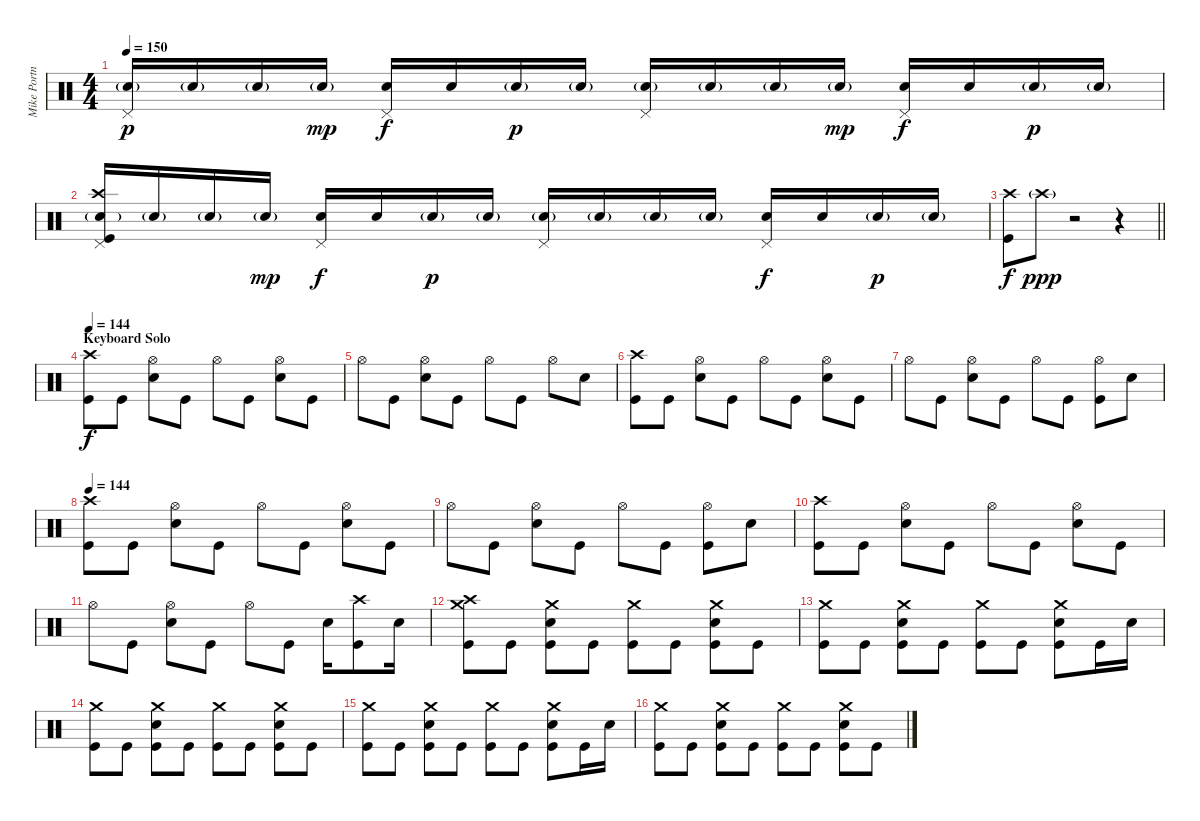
\track ("Mike Portnoy" "Mike Portn") {instrument percussion}
\staff {score}
\articulation defaults
\ts (4 4)
\tempo 150
\clef neutral
\ks c
("Electric Snare (hit)"{g} "Pedal Hi-Hat (hit)").16{dy p} "Electric Snare (hit)"{g}.16 "Electric Snare (hit)"{g}.16 "Electric Snare (hit)"{g}.16{dy mp} ("Electric Snare (hit)" "Pedal Hi-Hat (hit)").16{dy f} "Electric Snare (hit)".16 "Electric Snare (hit)"{g}.16{dy p} "Electric Snare (hit)"{g}.16 ("Electric Snare (hit)"{g} "Pedal Hi-Hat (hit)").16 "Electric Snare (hit)"{g}.16 "Electric Snare (hit)"{g}.16 "Electric Snare (hit)"{g}.16{dy mp} ("Electric Snare (hit)" "Pedal Hi-Hat (hit)").16{dy f} "Electric Snare (hit)".16 "Electric Snare (hit)"{g}.16{dy p} "Electric Snare (hit)"{g}.16 |
("Crash high (hit)" "Electric Snare (hit)"{g} "Kick (hit)" "Pedal Hi-Hat (hit)").16 "Electric Snare (hit)"{g}.16 "Electric Snare (hit)"{g}.16 "Electric Snare (hit)"{g}.16{dy mp} ("Electric Snare (hit)" "Pedal Hi-Hat (hit)").16{dy f} "Electric Snare (hit)".16 "Electric Snare (hit)"{g}.16{dy p} "Electric Snare (hit)"{g}.16 ("Electric Snare (hit)"{g} "Pedal Hi-Hat (hit)").16 "Electric Snare (hit)"{g}.16 "Electric Snare (hit)"{g}.16 "Electric Snare (hit)"{g}.16 ("Electric Snare (hit)" "Pedal Hi-Hat (hit)").16{dy f} "Electric Snare (hit)".16 "Electric Snare (hit)"{g}.16{dy p} "Electric Snare (hit)"{g}.16 |
\barLineRight lightlight
("Crash high (hit)" "Kick (hit)").8{dy f} "Crash high (hit)"{g}.8{dy ppp} r.2 r.4 |
\section ("" "Keyboard Solo ")
\tempo 144
("Crash high (hit)" "Kick (hit)").8{dy f} "Kick (hit)".8 ("Hi-Hat (open)" "Electric Snare (hit)").8 "Kick (hit)".8 "Hi-Hat (open)".8 "Kick (hit)".8 ("Hi-Hat (open)" "Electric Snare (hit)").8 "Kick (hit)".8 |
"Hi-Hat (open)".8 "Kick (hit)".8 ("Hi-Hat (open)" "Electric Snare (hit)").8 "Kick (hit)".8 "Hi-Hat (open)".8 "Kick (hit)".8 "Hi-Hat (open)".8 "Electric Snare (hit)".8 |
("Crash high (hit)" "Kick (hit)").8 "Kick (hit)".8 ("Hi-Hat (open)" "Electric Snare (hit)").8 "Kick (hit)".8 "Hi-Hat (open)".8 "Kick (hit)".8 ("Hi-Hat (open)" "Electric Snare (hit)").8 "Kick (hit)".8 |
"Hi-Hat (open)".8 "Kick (hit)".8 ("Hi-Hat (open)" "Electric Snare (hit)").8 "Kick (hit)".8 "Hi-Hat (open)".8 "Kick (hit)".8 ("Hi-Hat (open)" "Kick (hit)").8 "Electric Snare (hit)".8 |
\tempo 144
("Crash high (hit)" "Kick (hit)").8 "Kick (hit)".8 ("Hi-Hat (open)" "Electric Snare (hit)").8 "Kick (hit)".8 "Hi-Hat (open)".8 "Kick (hit)".8 ("Hi-Hat (open)" "Electric Snare (hit)").8 "Kick (hit)".8 |
"Hi-Hat (open)".8 "Kick (hit)".8 ("Hi-Hat (open)" "Electric Snare (hit)").8 "Kick (hit)".8 "Hi-Hat (open)".8 "Kick (hit)".8 ("Hi-Hat (open)" "Kick (hit)").8 "Electric Snare (hit)".8 |
("Crash high (hit)" "Kick (hit)").8 "Kick (hit)".8 ("Hi-Hat (open)" "Electric Snare (hit)").8 "Kick (hit)".8 "Hi-Hat (open)".8 "Kick (hit)".8 ("Hi-Hat (open)" "Electric Snare (hit)").8 "Kick (hit)".8 |
"Hi-Hat (open)".8 "Kick (hit)".8 ("Hi-Hat (open)" "Electric Snare (hit)").8 "Kick (hit)".8 "Hi-Hat (open)".8 "Kick (hit)".8 "Electric Snare (hit)".16 ("Crash high (hit)" "Kick (hit)").8 "Electric Snare (hit)".16 |
("Crash medium (hit)" "Crash high (hit)" "Kick (hit)").8 "Kick (hit)".8 ("Crash medium (hit)" "Electric Snare (hit)" "Kick (hit)").8 "Kick (hit)".8 ("Crash medium (hit)" "Kick (hit)").8 "Kick (hit)".8 ("Crash medium (hit)" "Electric Snare (hit)" "Kick (hit)").8 "Kick (hit)".8 |
("Crash medium (hit)" "Kick (hit)").8 "Kick (hit)".8 ("Crash medium (hit)" "Electric Snare (hit)" "Kick (hit)").8 "Kick (hit)".8 ("Crash medium (hit)" "Kick (hit)").8 "Kick (hit)".8 ("Crash medium (hit)" "Electric Snare (hit)" "Kick (hit)").8 "Kick (hit)".16 "Electric Snare (hit)".16 |
("Crash medium (hit)" "Kick (hit)").8 "Kick (hit)".8 ("Crash medium (hit)" "Electric Snare (hit)" "Kick (hit)").8 "Kick (hit)".8 ("Crash medium (hit)" "Kick (hit)").8 "Kick (hit)".8 ("Crash medium (hit)" "Electric Snare (hit)" "Kick (hit)").8 "Kick (hit)".8 |
("Crash medium (hit)" "Kick (hit)").8 "Kick (hit)".8 ("Crash medium (hit)" "Electric Snare (hit)" "Kick (hit)").8 "Kick (hit)".8 ("Crash medium (hit)" "Kick (hit)").8 "Kick (hit)".8 ("Crash medium (hit)" "Electric Snare (hit)" "Kick (hit)").8 "Kick (hit)".16 "Electric Snare (hit)".16 |
("Crash medium (hit)" "Kick (hit)").8 "Kick (hit)".8 ("Crash medium (hit)" "Electric Snare (hit)" "Kick (hit)").8 "Kick (hit)".8 ("Crash medium (hit)" "Kick (hit)").8 "Kick (hit)".8 ("Crash medium (hit)" "Electric Snare (hit)" "Kick (hit)").8 "Kick (hit)".8
